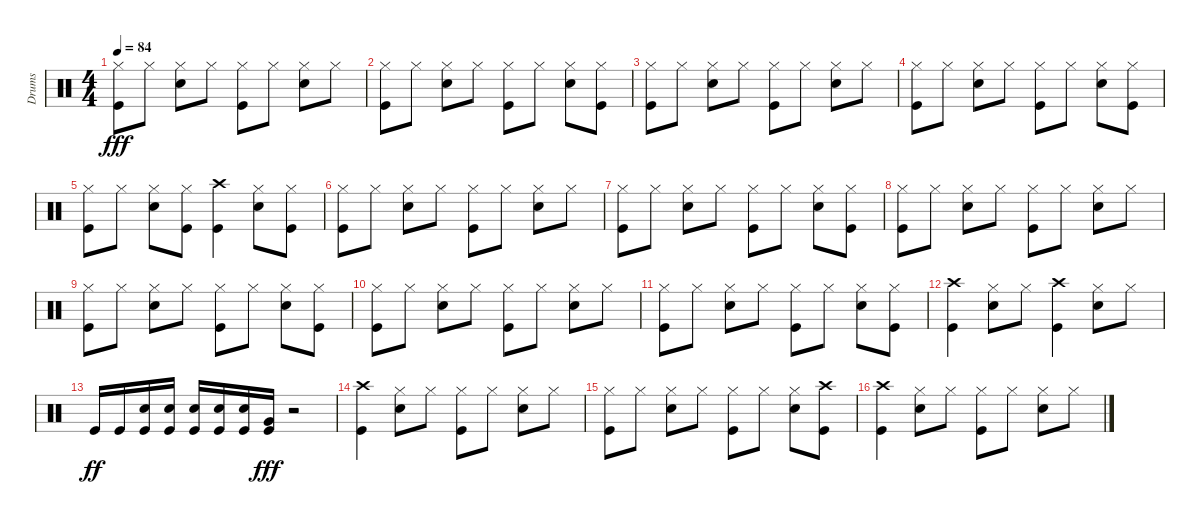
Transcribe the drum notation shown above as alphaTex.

\track ("Drums" "Drums") {instrument percussion}
\staff {score}
\articulation defaults
\ts (4 4)
\tempo 84
\clef neutral
\ks c
("Hi-Hat (closed)" "Kick (hit)").8{dy fff} "Hi-Hat (closed)".8 ("Hi-Hat (closed)" "Snare (hit) 2").8 "Hi-Hat (closed)".8 ("Hi-Hat (closed)" "Kick (hit)").8 "Hi-Hat (closed)".8 ("Hi-Hat (closed)" "Snare (hit) 2").8 "Hi-Hat (closed)".8 |
("Hi-Hat (closed)" "Kick (hit)").8 "Hi-Hat (closed)".8 ("Hi-Hat (closed)" "Snare (hit) 2").8 "Hi-Hat (closed)".8 ("Hi-Hat (closed)" "Kick (hit)").8 "Hi-Hat (closed)".8 ("Hi-Hat (closed)" "Snare (hit) 2").8 ("Hi-Hat (closed)" "Kick (hit)").8 |
("Hi-Hat (closed)" "Kick (hit)").8 "Hi-Hat (closed)".8 ("Hi-Hat (closed)" "Snare (hit) 2").8 "Hi-Hat (closed)".8 ("Hi-Hat (closed)" "Kick (hit)").8 "Hi-Hat (closed)".8 ("Hi-Hat (closed)" "Snare (hit) 2").8 "Hi-Hat (closed)".8 |
("Hi-Hat (closed)" "Kick (hit)").8 "Hi-Hat (closed)".8 ("Hi-Hat (closed)" "Snare (hit) 2").8 "Hi-Hat (closed)".8 ("Hi-Hat (closed)" "Kick (hit)").8 "Hi-Hat (closed)".8 ("Hi-Hat (closed)" "Snare (hit) 2").8 ("Hi-Hat (closed)" "Kick (hit)").8 |
("Hi-Hat (closed)" "Kick (hit)").8 "Hi-Hat (closed)".8 ("Hi-Hat (closed)" "Snare (hit) 2").8 ("Hi-Hat (closed)" "Kick (hit)").8 ("Crash high (hit)" "Kick (hit)").4 ("Hi-Hat (closed)" "Snare (hit) 2").8 ("Hi-Hat (closed)" "Kick (hit)").8 |
("Hi-Hat (closed)" "Kick (hit)").8 "Hi-Hat (closed)".8 ("Hi-Hat (closed)" "Snare (hit) 2").8 "Hi-Hat (closed)".8 ("Hi-Hat (closed)" "Kick (hit)").8 "Hi-Hat (closed)".8 ("Hi-Hat (closed)" "Snare (hit) 2").8 "Hi-Hat (closed)".8 |
("Hi-Hat (closed)" "Kick (hit)").8 "Hi-Hat (closed)".8 ("Hi-Hat (closed)" "Snare (hit) 2").8 "Hi-Hat (closed)".8 ("Hi-Hat (closed)" "Kick (hit)").8 "Hi-Hat (closed)".8 ("Hi-Hat (closed)" "Snare (hit) 2").8 ("Hi-Hat (closed)" "Kick (hit)").8 |
("Hi-Hat (closed)" "Kick (hit)").8 "Hi-Hat (closed)".8 ("Hi-Hat (closed)" "Snare (hit) 2").8 "Hi-Hat (closed)".8 ("Hi-Hat (closed)" "Kick (hit)").8 "Hi-Hat (closed)".8 ("Hi-Hat (closed)" "Snare (hit) 2").8 "Hi-Hat (closed)".8 |
("Hi-Hat (closed)" "Kick (hit)").8 "Hi-Hat (closed)".8 ("Hi-Hat (closed)" "Snare (hit) 2").8 "Hi-Hat (closed)".8 ("Hi-Hat (closed)" "Kick (hit)").8 "Hi-Hat (closed)".8 ("Hi-Hat (closed)" "Snare (hit) 2").8 ("Hi-Hat (closed)" "Kick (hit)").8 |
("Hi-Hat (closed)" "Kick (hit)").8 "Hi-Hat (closed)".8 ("Hi-Hat (closed)" "Snare (hit) 2").8 "Hi-Hat (closed)".8 ("Hi-Hat (closed)" "Kick (hit)").8 "Hi-Hat (closed)".8 ("Hi-Hat (closed)" "Snare (hit) 2").8 "Hi-Hat (closed)".8 |
("Hi-Hat (closed)" "Kick (hit)").8 "Hi-Hat (closed)".8 ("Hi-Hat (closed)" "Snare (hit) 2").8 "Hi-Hat (closed)".8 ("Hi-Hat (closed)" "Kick (hit)").8 "Hi-Hat (closed)".8 ("Hi-Hat (closed)" "Snare (hit) 2").8 ("Hi-Hat (closed)" "Kick (hit)").8 |
("Crash high (hit)" "Kick (hit)").4 ("Hi-Hat (closed)" "Snare (hit) 2").8 "Hi-Hat (closed)".8 ("Crash high (hit)" "Kick (hit)").4 ("Hi-Hat (closed)" "Snare (hit) 2").8 "Hi-Hat (closed)".8 |
"Kick (hit)".16{dy ff} "Kick (hit)".16 ("Snare (hit) 2" "Kick (hit)").16 ("Snare (hit) 2" "Kick (hit)").16 ("Snare (hit) 2" "Kick (hit)").16 ("Snare (hit) 2" "Kick (hit)").16 ("Snare (hit) 2" "Kick (hit)").16 ("Very Low Tom (hit)" "Kick (hit)").16{dy fff} r.2 |
("Crash high (hit)" "Kick (hit)").4 ("Hi-Hat (closed)" "Snare (hit) 2").8 "Hi-Hat (closed)".8 ("Hi-Hat (closed)" "Kick (hit)").8 "Hi-Hat (closed)".8 ("Hi-Hat (closed)" "Snare (hit) 2").8 "Hi-Hat (closed)".8 |
("Hi-Hat (closed)" "Kick (hit)").8 "Hi-Hat (closed)".8 ("Hi-Hat (closed)" "Snare (hit) 2").8 "Hi-Hat (closed)".8 ("Hi-Hat (closed)" "Kick (hit)").8 "Hi-Hat (closed)".8 ("Hi-Hat (closed)" "Snare (hit) 2").8 ("Crash high (hit)" "Kick (hit)").8 |
("Crash high (hit)" "Kick (hit)").4 ("Hi-Hat (closed)" "Snare (hit) 2").8 "Hi-Hat (closed)".8 ("Hi-Hat (closed)" "Kick (hit)").8 "Hi-Hat (closed)".8 ("Hi-Hat (closed)" "Snare (hit) 2").8 "Hi-Hat (closed)".8
